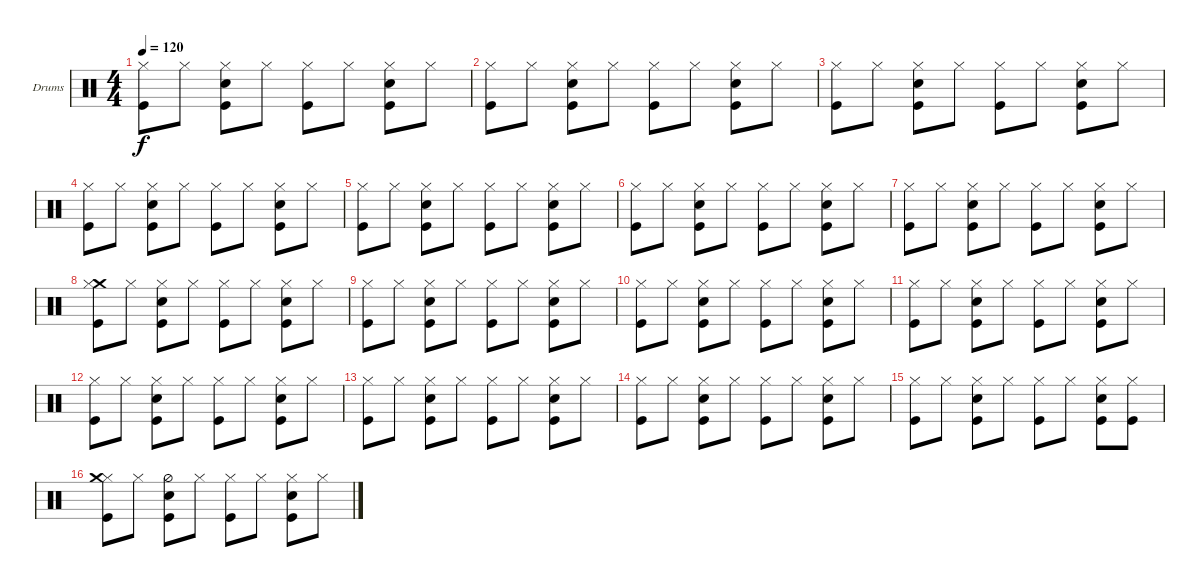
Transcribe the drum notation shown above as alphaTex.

\bracketExtendMode nobrackets
\firstSystemTrackNameOrientation horizontal
\otherSystemsTrackNameOrientation horizontal
\track ("Drumkit" "Drums") {instrument percussion}
\staff {score}
\articulation defaults
\ts (4 4)
\tempo 120
\clef neutral
\ks c
("Kick (hit)" "Hi-Hat (closed)").8{dy f} "Hi-Hat (closed)".8 ("Kick (hit)" "Snare (hit) 2" "Hi-Hat (closed)").8 "Hi-Hat (closed)".8 ("Kick (hit)" "Hi-Hat (closed)").8 "Hi-Hat (closed)".8 ("Kick (hit)" "Snare (hit) 2" "Hi-Hat (closed)").8 "Hi-Hat (closed)".8 |
("Kick (hit)" "Hi-Hat (closed)").8 "Hi-Hat (closed)".8 ("Kick (hit)" "Snare (hit) 2" "Hi-Hat (closed)").8 "Hi-Hat (closed)".8 ("Kick (hit)" "Hi-Hat (closed)").8 "Hi-Hat (closed)".8 ("Kick (hit)" "Snare (hit) 2" "Hi-Hat (closed)").8 "Hi-Hat (closed)".8 |
("Kick (hit)" "Hi-Hat (closed)").8 "Hi-Hat (closed)".8 ("Kick (hit)" "Snare (hit) 2" "Hi-Hat (closed)").8 "Hi-Hat (closed)".8 ("Kick (hit)" "Hi-Hat (closed)").8 "Hi-Hat (closed)".8 ("Kick (hit)" "Snare (hit) 2" "Hi-Hat (closed)").8 "Hi-Hat (closed)".8 |
("Kick (hit)" "Hi-Hat (closed)").8 "Hi-Hat (closed)".8 ("Kick (hit)" "Snare (hit) 2" "Hi-Hat (closed)").8 "Hi-Hat (closed)".8 ("Kick (hit)" "Hi-Hat (closed)").8 "Hi-Hat (closed)".8 ("Kick (hit)" "Snare (hit) 2" "Hi-Hat (closed)").8 "Hi-Hat (closed)".8 |
("Kick (hit)" "Hi-Hat (closed)").8 "Hi-Hat (closed)".8 ("Kick (hit)" "Snare (hit) 2" "Hi-Hat (closed)").8 "Hi-Hat (closed)".8 ("Kick (hit)" "Hi-Hat (closed)").8 "Hi-Hat (closed)".8 ("Kick (hit)" "Snare (hit) 2" "Hi-Hat (closed)").8 "Hi-Hat (closed)".8 |
("Hi-Hat (closed)" "Kick (hit)").8 "Hi-Hat (closed)".8 ("Kick (hit)" "Snare (hit) 2" "Hi-Hat (closed)").8 "Hi-Hat (closed)".8 ("Kick (hit)" "Hi-Hat (closed)").8 "Hi-Hat (closed)".8 ("Kick (hit)" "Snare (hit) 2" "Hi-Hat (closed)").8 "Hi-Hat (closed)".8 |
("Kick (hit)" "Hi-Hat (closed)").8 "Hi-Hat (closed)".8 ("Kick (hit)" "Snare (hit) 2" "Hi-Hat (closed)").8 "Hi-Hat (closed)".8 ("Kick (hit)" "Hi-Hat (closed)").8 "Hi-Hat (closed)".8 ("Kick (hit)" "Snare (hit) 2" "Hi-Hat (closed)").8 "Hi-Hat (closed)".8 |
("Kick (hit)" "Crash medium (hit)" "Hi-Hat (closed)").8 "Hi-Hat (closed)".8 ("Kick (hit)" "Snare (hit) 2" "Hi-Hat (closed)").8 "Hi-Hat (closed)".8 ("Kick (hit)" "Hi-Hat (closed)").8 "Hi-Hat (closed)".8 ("Kick (hit)" "Snare (hit) 2" "Hi-Hat (closed)").8 "Hi-Hat (closed)".8 |
("Kick (hit)" "Hi-Hat (closed)").8 "Hi-Hat (closed)".8 ("Kick (hit)" "Snare (hit) 2" "Hi-Hat (closed)").8 "Hi-Hat (closed)".8 ("Kick (hit)" "Hi-Hat (closed)").8 "Hi-Hat (closed)".8 ("Kick (hit)" "Snare (hit) 2" "Hi-Hat (closed)").8 "Hi-Hat (closed)".8 |
("Kick (hit)" "Hi-Hat (closed)").8 "Hi-Hat (closed)".8 ("Kick (hit)" "Snare (hit) 2" "Hi-Hat (closed)").8 "Hi-Hat (closed)".8 ("Kick (hit)" "Hi-Hat (closed)").8 "Hi-Hat (closed)".8 ("Kick (hit)" "Snare (hit) 2" "Hi-Hat (closed)").8 "Hi-Hat (closed)".8 |
("Kick (hit)" "Hi-Hat (closed)").8 "Hi-Hat (closed)".8 ("Kick (hit)" "Snare (hit) 2" "Hi-Hat (closed)").8 "Hi-Hat (closed)".8 ("Kick (hit)" "Hi-Hat (closed)").8 "Hi-Hat (closed)".8 ("Kick (hit)" "Snare (hit) 2" "Hi-Hat (closed)").8 "Hi-Hat (closed)".8 |
("Kick (hit)" "Hi-Hat (closed)").8 "Hi-Hat (closed)".8 ("Kick (hit)" "Snare (hit) 2" "Hi-Hat (closed)").8 "Hi-Hat (closed)".8 ("Kick (hit)" "Hi-Hat (closed)").8 "Hi-Hat (closed)".8 ("Kick (hit)" "Snare (hit) 2" "Hi-Hat (closed)").8 "Hi-Hat (closed)".8 |
("Kick (hit)" "Hi-Hat (closed)").8 "Hi-Hat (closed)".8 ("Kick (hit)" "Snare (hit) 2" "Hi-Hat (closed)").8 "Hi-Hat (closed)".8 ("Kick (hit)" "Hi-Hat (closed)").8 "Hi-Hat (closed)".8 ("Kick (hit)" "Snare (hit) 2" "Hi-Hat (closed)").8 "Hi-Hat (closed)".8 |
("Kick (hit)" "Hi-Hat (closed)").8 "Hi-Hat (closed)".8 ("Kick (hit)" "Snare (hit) 2" "Hi-Hat (closed)").8 "Hi-Hat (closed)".8 ("Kick (hit)" "Hi-Hat (closed)").8 "Hi-Hat (closed)".8 ("Kick (hit)" "Snare (hit) 2" "Hi-Hat (closed)").8 "Hi-Hat (closed)".8 |
("Kick (hit)" "Hi-Hat (closed)").8 "Hi-Hat (closed)".8 ("Kick (hit)" "Snare (hit) 2" "Hi-Hat (closed)").8 "Hi-Hat (closed)".8 ("Kick (hit)" "Hi-Hat (closed)").8 "Hi-Hat (closed)".8 ("Kick (hit)" "Snare (hit) 2" "Hi-Hat (closed)").8 ("Hi-Hat (closed)" "Kick (hit)").8 |
("Kick (hit)" "Hi-Hat (closed)" "Crash medium (hit)").8 "Hi-Hat (closed)".8 ("Kick (hit)" "Hi-Hat (half)" "Snare (hit) 2").8 "Hi-Hat (closed)".8 ("Kick (hit)" "Hi-Hat (closed)").8 "Hi-Hat (closed)".8 ("Kick (hit)" "Snare (hit) 2" "Hi-Hat (closed)").8 "Hi-Hat (closed)".8
